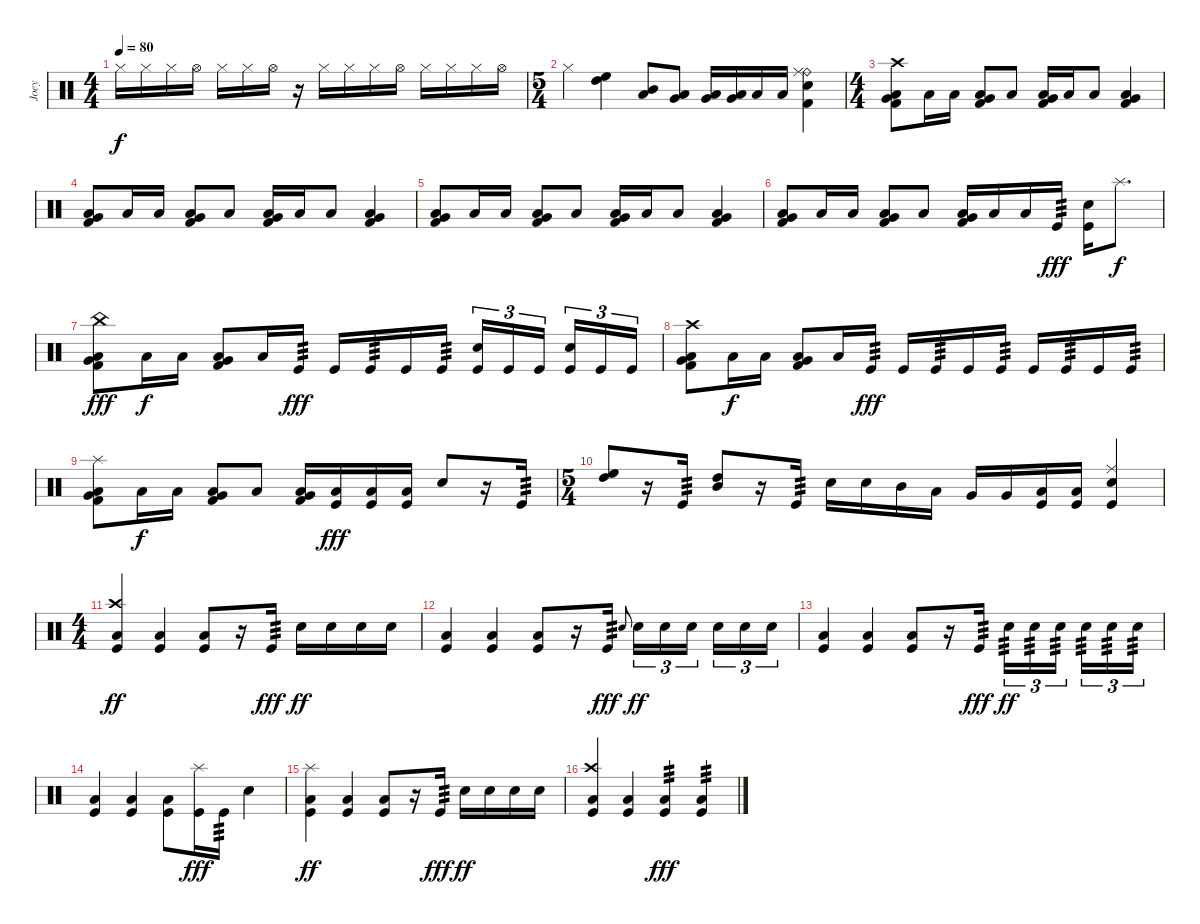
\track ("Joey" "Joey") {instrument percussion}
\staff {score}
\articulation defaults
\ts (4 4)
\tempo 80
\clef neutral
\ks c "Hi-Hat (closed)".16{dy f} "Hi-Hat (closed)".16 "Hi-Hat (closed)".16 "Hi-Hat (open)".16 "Hi-Hat (closed)".16 "Hi-Hat (closed)".16 "Hi-Hat (open)".16
r.16 "Hi-Hat (closed)".16 "Hi-Hat (closed)".16 "Hi-Hat (closed)".16 "Hi-Hat (open)".16 "Hi-Hat (closed)".16 "Hi-Hat (closed)".16 "Hi-Hat (closed)".16 "Hi-Hat (open)".16 |
\ts (5 4)
"Hi-Hat (closed)".4 ("High Floor Tom (hit)" "High Tom (hit)").4 ("Mid Tom (hit)" "Low Tom (hit)").8 ("Low Tom (hit)" "Very Low Tom (hit)").8 ("Very Low Tom (hit)" "Low Floor Tom (hit)").16 ("Very Low Tom (hit)" "Low Floor Tom (hit)").16 "Low Floor Tom (hit)".16 "Low Floor Tom (hit)".16 ("Electric Snare (hit)" "Kick (hit) 2" "Ride (bell)" "Ride (middle)").4 |
\ts (4 4)
("Crash high (hit)" "Kick (hit) 2" "Low Floor Tom (hit)" "Very Low Tom (hit)").8 "Low Floor Tom (hit)".16 "Low Floor Tom (hit)".16 ("Kick (hit) 2" "Very Low Tom (hit)" "Low Floor Tom (hit)").8 "Low Floor Tom (hit)".8 ("Kick (hit) 2" "Low Floor Tom (hit)" "Very Low Tom (hit)").16 "Low Floor Tom (hit)".16 "Low Floor Tom (hit)".8 ("Very Low Tom (hit)" "Kick (hit) 2" "Low Floor Tom (hit)").4 |
("Kick (hit) 2" "Low Floor Tom (hit)" "Very Low Tom (hit)").8 "Low Floor Tom (hit)".16 "Low Floor Tom (hit)".16 ("Kick (hit) 2" "Very Low Tom (hit)" "Low Floor Tom (hit)").8 "Low Floor Tom (hit)".8 ("Kick (hit) 2" "Low Floor Tom (hit)" "Very Low Tom (hit)").16 "Low Floor Tom (hit)".16 "Low Floor Tom (hit)".8 ("Very Low Tom (hit)" "Kick (hit) 2" "Low Floor Tom (hit)").4 |
("Kick (hit) 2" "Low Floor Tom (hit)" "Very Low Tom (hit)").8 "Low Floor Tom (hit)".16 "Low Floor Tom (hit)".16 ("Kick (hit) 2" "Very Low Tom (hit)" "Low Floor Tom (hit)").8 "Low Floor Tom (hit)".8 ("Kick (hit) 2" "Low Floor Tom (hit)" "Very Low Tom (hit)").16 "Low Floor Tom (hit)".16 "Low Floor Tom (hit)".8 ("Very Low Tom (hit)" "Kick (hit) 2" "Low Floor Tom (hit)").4 |
("Kick (hit) 2" "Low Floor Tom (hit)" "Very Low Tom (hit)").8 "Low Floor Tom (hit)".16 "Low Floor Tom (hit)".16 ("Kick (hit) 2" "Very Low Tom (hit)" "Low Floor Tom (hit)").8 "Low Floor Tom (hit)".8 ("Kick (hit) 2" "Low Floor Tom (hit)" "Very Low Tom (hit)").16 "Low Floor Tom (hit)".16 "Low Floor Tom (hit)".16 "Kick (hit)".16{tp 3 dy fff} ("Kick (hit)" "Electric Snare (hit)").16 "Splash (hit)".8{d dy f} |
("China (hit)" "Kick (hit) 2" "Low Floor Tom (hit)" "Very Low Tom (hit)").8{dy fff} "Low Floor Tom (hit)".16{dy f} "Low Floor Tom (hit)".16 ("Kick (hit) 2" "Very Low Tom (hit)" "Low Floor Tom (hit)").8 "Low Floor Tom (hit)".16 "Kick (hit)".16{tp 3 dy fff} "Kick (hit)".16 "Kick (hit)".16{tp 3} "Kick (hit)".16 "Kick (hit)".16{tp 3} ("Kick (hit)" "Electric Snare (hit)").16{tu (3 2)} "Kick (hit)".16{tu (3 2)} "Kick (hit)".16{tu (3 2) beam splitsecondary} ("Kick (hit)" "Electric Snare (hit)").16{tu (3 2)} "Kick (hit)".16{tu (3 2)} "Kick (hit)".16{tu (3 2)} |
("Crash high (hit)" "Kick (hit) 2" "Low Floor Tom (hit)" "Very Low Tom (hit)").8 "Low Floor Tom (hit)".16{dy f} "Low Floor Tom (hit)".16 ("Kick (hit) 2" "Very Low Tom (hit)" "Low Floor Tom (hit)").8 "Low Floor Tom (hit)".16 "Kick (hit)".16{tp 3 dy fff} "Kick (hit)".16 "Kick (hit)".16{tp 3} "Kick (hit)".16 "Kick (hit)".16{tp 3} "Kick (hit)".16 "Kick (hit)".16{tp 3} "Kick (hit)".16 "Kick (hit)".16{tp 3} |
("Splash (hit)" "Kick (hit) 2" "Low Floor Tom (hit)" "Very Low Tom (hit)").8 "Low Floor Tom (hit)".16{dy f} "Low Floor Tom (hit)".16 ("Kick (hit) 2" "Very Low Tom (hit)" "Low Floor Tom (hit)").8 "Low Floor Tom (hit)".8 ("Kick (hit) 2" "Low Floor Tom (hit)" "Very Low Tom (hit)").16 ("Low Floor Tom (hit)" "Kick (hit)").16{dy fff} ("Low Floor Tom (hit)" "Kick (hit)").16 ("Low Floor Tom (hit)" "Kick (hit)").16 "Electric Snare (hit)".8 r.16 "Kick (hit)".16{tp 3} |
\ts (5 4)
("High Tom (hit)" "High Floor Tom (hit)").8 r.16 "Kick (hit)".16{tp 3} ("Mid Tom (hit)" "High Tom (hit)").8 r.16 "Kick (hit)".16{tp 3} "Electric Snare (hit)".16 "Electric Snare (hit)".16 "Mid Tom (hit)".16 "Low Tom (hit)".16 "Very Low Tom (hit)".16 "Very Low Tom (hit)".16 ("Low Floor Tom (hit)" "Kick (hit)").16 ("Low Floor Tom (hit)" "Kick (hit)").16 ("Ride (middle)" "Electric Snare (hit)" "Kick (hit)").4 |
\ts (4 4)
("Crash high (hit)" "Kick (hit)" "Low Floor Tom (hit)").4{dy ff} ("Low Floor Tom (hit)" "Kick (hit)").4 ("Low Floor Tom (hit)" "Kick (hit)").8 r.16 "Kick (hit)".16{tp 3 dy fff} "Electric Snare (hit)".16{dy ff} "Electric Snare (hit)".16 "Electric Snare (hit)".16 "Electric Snare (hit)".16 |
("Kick (hit)" "Low Floor Tom (hit)").4 ("Low Floor Tom (hit)" "Kick (hit)").4 ("Low Floor Tom (hit)" "Kick (hit)").8 r.16 "Kick (hit)".16{tp 3 dy fff} "Electric Snare (hit)"{h}.8{gr onbeat} "Electric Snare (hit)".16{tu (3 2) dy ff} "Electric Snare (hit)".16{tu (3 2)} "Electric Snare (hit)".16{tu (3 2) beam splitsecondary} "Electric Snare (hit)".16{tu (3 2)} "Electric Snare (hit)".16{tu (3 2)} "Electric Snare (hit)".16{tu (3 2)} |
("Kick (hit)" "Low Floor Tom (hit)").4 ("Low Floor Tom (hit)" "Kick (hit)").4 ("Low Floor Tom (hit)" "Kick (hit)").8 r.16 "Kick (hit)".16{tp 3 dy fff} "Electric Snare (hit)".16{tu (3 2) tp 3 dy ff} "Electric Snare (hit)".16{tu (3 2) tp 3} "Electric Snare (hit)".16{tu (3 2) tp 3 beam splitsecondary} "Electric Snare (hit)".16{tu (3 2) tp 3} "Electric Snare (hit)".16{tu (3 2) tp 3} "Electric Snare (hit)".16{tu (3 2) tp 3} |
("Kick (hit)" "Low Floor Tom (hit)").4 ("Low Floor Tom (hit)" "Kick (hit)").4 ("Low Floor Tom (hit)" "Kick (hit)").8 ("Splash (hit)" "Kick (hit)").16{dy fff} "Kick (hit)".16{tp 3} "Electric Snare (hit)".4 |
("Splash (hit)" "Kick (hit)" "Low Floor Tom (hit)").4{dy ff} ("Low Floor Tom (hit)" "Kick (hit)").4 ("Low Floor Tom (hit)" "Kick (hit)").8 r.16 "Kick (hit)".16{tp 3 dy fff} "Electric Snare (hit)".16{dy ff} "Electric Snare (hit)".16 "Electric Snare (hit)".16 "Electric Snare (hit)".16 |
("Crash high (hit)" "Kick (hit)" "Low Floor Tom (hit)").4 ("Low Floor Tom (hit)" "Kick (hit)").4 ("Kick (hit)" "Low Floor Tom (hit)").4{tp 3 dy fff} ("Kick (hit)" "Low Floor Tom (hit)").4{tp 3}
